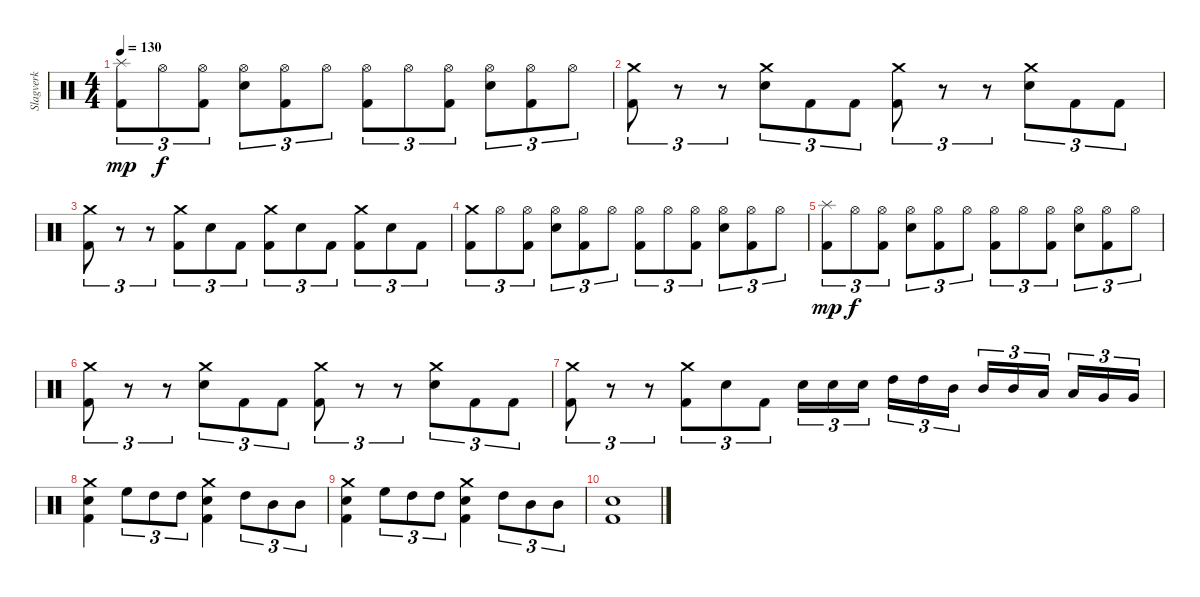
\track ("Slagverk" "Slagverk") {instrument percussion}
\staff {score}
\articulation defaults
\ts (4 4)
\tempo 130
\clef neutral
\ks c
("Kick (hit) 2" "Splash (hit)").8{tu (3 2) dy mp} "Hi-Hat (open)".8{tu (3 2) dy f} ("Kick (hit) 2" "Hi-Hat (open)").8{tu (3 2)} ("Electric Snare (hit)" "Hi-Hat (open)").8{tu (3 2)} ("Kick (hit) 2" "Hi-Hat (open)").8{tu (3 2)} "Hi-Hat (open)".8{tu (3 2)} ("Kick (hit) 2" "Hi-Hat (open)").8{tu (3 2)} "Hi-Hat (open)".8{tu (3 2)} ("Kick (hit) 2" "Hi-Hat (open)").8{tu (3 2)} ("Electric Snare (hit)" "Hi-Hat (open)").8{tu (3 2)} ("Kick (hit) 2" "Hi-Hat (open)").8{tu (3 2)} "Hi-Hat (open)".8{tu (3 2)} |
("Kick (hit) 2" "Crash medium (hit)").8{tu (3 2)} r.8{tu (3 2)} r.8{tu (3 2)} ("Electric Snare (hit)" "Crash medium (hit)").8{tu (3 2)} "Kick (hit) 2".8{tu (3 2)} "Kick (hit) 2".8{tu (3 2)} ("Kick (hit) 2" "Crash medium (hit)").8{tu (3 2)} r.8{tu (3 2)} r.8{tu (3 2)} ("Electric Snare (hit)" "Crash medium (hit)").8{tu (3 2)} "Kick (hit) 2".8{tu (3 2)} "Kick (hit) 2".8{tu (3 2)} |
("Kick (hit) 2" "Crash medium (hit)").8{tu (3 2)} r.8{tu (3 2)} r.8{tu (3 2)} ("Kick (hit) 2" "Crash medium (hit)").8{tu (3 2)} "Electric Snare (hit)".8{tu (3 2)} "Kick (hit) 2".8{tu (3 2)} ("Kick (hit) 2" "Crash medium (hit)").8{tu (3 2)} "Electric Snare (hit)".8{tu (3 2)} "Kick (hit) 2".8{tu (3 2)} ("Kick (hit) 2" "Crash medium (hit)").8{tu (3 2)} "Electric Snare (hit)".8{tu (3 2)} "Kick (hit) 2".8{tu (3 2)} |
("Kick (hit) 2" "Crash medium (hit)").8{tu (3 2)} "Hi-Hat (open)".8{tu (3 2)} ("Kick (hit) 2" "Hi-Hat (open)").8{tu (3 2)} ("Electric Snare (hit)" "Hi-Hat (open)").8{tu (3 2)} ("Kick (hit) 2" "Hi-Hat (open)").8{tu (3 2)} "Hi-Hat (open)".8{tu (3 2)} ("Kick (hit) 2" "Hi-Hat (open)").8{tu (3 2)} "Hi-Hat (open)".8{tu (3 2)} ("Kick (hit) 2" "Hi-Hat (open)").8{tu (3 2)} ("Electric Snare (hit)" "Hi-Hat (open)").8{tu (3 2)} ("Kick (hit) 2" "Hi-Hat (open)").8{tu (3 2)} "Hi-Hat (open)".8{tu (3 2)} |
("Kick (hit) 2" "Splash (hit)").8{tu (3 2) dy mp} "Hi-Hat (open)".8{tu (3 2) dy f} ("Kick (hit) 2" "Hi-Hat (open)").8{tu (3 2)} ("Electric Snare (hit)" "Hi-Hat (open)").8{tu (3 2)} ("Kick (hit) 2" "Hi-Hat (open)").8{tu (3 2)} "Hi-Hat (open)".8{tu (3 2)} ("Kick (hit) 2" "Hi-Hat (open)").8{tu (3 2)} "Hi-Hat (open)".8{tu (3 2)} ("Kick (hit) 2" "Hi-Hat (open)").8{tu (3 2)} ("Electric Snare (hit)" "Hi-Hat (open)").8{tu (3 2)} ("Kick (hit) 2" "Hi-Hat (open)").8{tu (3 2)} "Hi-Hat (open)".8{tu (3 2)} |
("Kick (hit) 2" "Crash medium (hit)").8{tu (3 2)} r.8{tu (3 2)} r.8{tu (3 2)} ("Electric Snare (hit)" "Crash medium (hit)").8{tu (3 2)} "Kick (hit) 2".8{tu (3 2)} "Kick (hit) 2".8{tu (3 2)} ("Kick (hit) 2" "Crash medium (hit)").8{tu (3 2)} r.8{tu (3 2)} r.8{tu (3 2)} ("Electric Snare (hit)" "Crash medium (hit)").8{tu (3 2)} "Kick (hit) 2".8{tu (3 2)} "Kick (hit) 2".8{tu (3 2)} |
("Kick (hit) 2" "Crash medium (hit)").8{tu (3 2)} r.8{tu (3 2)} r.8{tu (3 2)} ("Kick (hit) 2" "Crash medium (hit)").8{tu (3 2)} "Electric Snare (hit)".8{tu (3 2)} "Kick (hit) 2".8{tu (3 2)} "Electric Snare (hit)".16{tu (3 2)} "Electric Snare (hit)".16{tu (3 2)} "Electric Snare (hit)".16{tu (3 2)} "High Tom (hit)".16{tu (3 2)} "High Tom (hit)".16{tu (3 2)} "Mid Tom (hit)".16{tu (3 2)} "Mid Tom (hit)".16{tu (3 2)} "Mid Tom (hit)".16{tu (3 2)} "Low Tom (hit)".16{tu (3 2)} "Low Tom (hit)".16{tu (3 2)} "Very Low Tom (hit)".16{tu (3 2)} "Very Low Tom (hit)".16{tu (3 2)} |
("Crash medium (hit)" "Electric Snare (hit)" "Kick (hit) 2").4 "High Floor Tom (hit)".8{tu (3 2)} "High Tom (hit)".8{tu (3 2)} "High Tom (hit)".8{tu (3 2)} ("Crash medium (hit)" "Electric Snare (hit)" "Kick (hit) 2").4 "High Tom (hit)".8{tu (3 2)} "Mid Tom (hit)".8{tu (3 2)} "Mid Tom (hit)".8{tu (3 2)} |
("Crash medium (hit)" "Electric Snare (hit)" "Kick (hit) 2").4 "High Floor Tom (hit)".8{tu (3 2)} "High Tom (hit)".8{tu (3 2)} "High Tom (hit)".8{tu (3 2)} ("Crash medium (hit)" "Electric Snare (hit)" "Kick (hit) 2").4 "High Tom (hit)".8{tu (3 2)} "Mid Tom (hit)".8{tu (3 2)} "Mid Tom (hit)".8{tu (3 2)} |
("Kick (hit) 2" "Electric Snare (hit)").1
